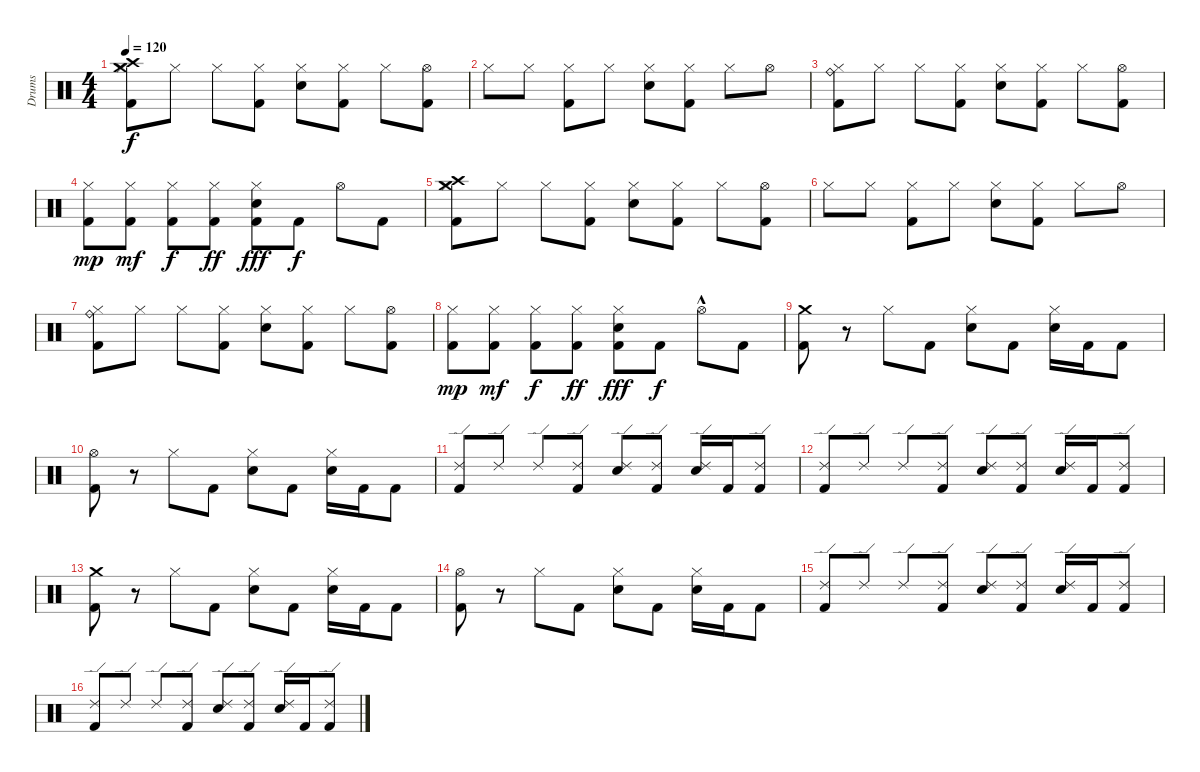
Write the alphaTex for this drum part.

\track ("Drums" "Drums") {instrument percussion}
\staff {score}
\articulation defaults
\ts (4 4)
\tempo 120
\clef neutral
\ks c
("Crash medium (hit)" "Crash high (hit)" "Hi-Hat (closed)" "Kick (hit) 2").8{dy f} "Hi-Hat (closed)".8 "Hi-Hat (closed)".8 ("Hi-Hat (closed)" "Kick (hit) 2").8 ("Hi-Hat (closed)" "Snare (hit) 2").8 ("Hi-Hat (closed)" "Kick (hit) 2").8 "Hi-Hat (closed)".8 ("Hi-Hat (open)" "Kick (hit) 2").8 |
"Hi-Hat (closed)".8 "Hi-Hat (closed)".8 ("Hi-Hat (closed)" "Kick (hit) 2").8 "Hi-Hat (closed)".8 ("Hi-Hat (closed)" "Snare (hit) 2").8 ("Hi-Hat (closed)" "Kick (hit) 2").8 "Hi-Hat (closed)".8 "Hi-Hat (open)".8 |
("Ride (bell)" "Hi-Hat (closed)" "Kick (hit) 2").8 "Hi-Hat (closed)".8 "Hi-Hat (closed)".8 ("Hi-Hat (closed)" "Kick (hit) 2").8 ("Hi-Hat (closed)" "Snare (hit) 2").8 ("Hi-Hat (closed)" "Kick (hit) 2").8 "Hi-Hat (closed)".8 ("Hi-Hat (open)" "Kick (hit) 2").8 |
("Hi-Hat (closed)" "Kick (hit) 2").8{dy mp} ("Hi-Hat (closed)" "Kick (hit) 2").8{dy mf} ("Hi-Hat (closed)" "Kick (hit) 2").8{dy f} ("Hi-Hat (closed)" "Kick (hit) 2").8{dy ff} ("Hi-Hat (closed)" "Kick (hit) 2" "Snare (hit) 2").8{dy fff} "Kick (hit) 2".8{dy f} "Hi-Hat (open)".8 "Kick (hit) 2".8 |
("Crash medium (hit)" "Crash high (hit)" "Hi-Hat (closed)" "Kick (hit) 2").8 "Hi-Hat (closed)".8 "Hi-Hat (closed)".8 ("Hi-Hat (closed)" "Kick (hit) 2").8 ("Hi-Hat (closed)" "Snare (hit) 2").8 ("Hi-Hat (closed)" "Kick (hit) 2").8 "Hi-Hat (closed)".8 ("Hi-Hat (open)" "Kick (hit) 2").8 |
"Hi-Hat (closed)".8 "Hi-Hat (closed)".8 ("Hi-Hat (closed)" "Kick (hit) 2").8 "Hi-Hat (closed)".8 ("Hi-Hat (closed)" "Snare (hit) 2").8 ("Hi-Hat (closed)" "Kick (hit) 2").8 "Hi-Hat (closed)".8 "Hi-Hat (open)".8 |
("Ride (bell)" "Hi-Hat (closed)" "Kick (hit) 2").8 "Hi-Hat (closed)".8 "Hi-Hat (closed)".8 ("Hi-Hat (closed)" "Kick (hit) 2").8 ("Hi-Hat (closed)" "Snare (hit) 2").8 ("Hi-Hat (closed)" "Kick (hit) 2").8 "Hi-Hat (closed)".8 ("Hi-Hat (open)" "Kick (hit) 2").8 |
("Hi-Hat (closed)" "Kick (hit) 2").8{dy mp} ("Hi-Hat (closed)" "Kick (hit) 2").8{dy mf} ("Hi-Hat (closed)" "Kick (hit) 2").8{dy f} ("Hi-Hat (closed)" "Kick (hit) 2").8{dy ff} ("Hi-Hat (closed)" "Kick (hit) 2" "Snare (hit) 2").8{dy fff} "Kick (hit) 2".8{dy f} "Hi-Hat (open)"{hac}.8 "Kick (hit) 2".8 |
("Crash medium (hit)" "Kick (hit) 2").8 r.8 "Hi-Hat (closed)".8 "Kick (hit) 2".8 ("Hi-Hat (closed)" "Snare (hit) 2").8 "Kick (hit) 2".8 ("Hi-Hat (closed)" "Snare (hit) 2").16 "Kick (hit) 2".16 "Kick (hit) 2".8 |
("Hi-Hat (open)" "Kick (hit) 2").8 r.8 "Hi-Hat (closed)".8 "Kick (hit) 2".8 ("Hi-Hat (closed)" "Snare (hit) 2").8 "Kick (hit) 2".8 ("Hi-Hat (closed)" "Snare (hit) 2").16 "Kick (hit) 2".16 "Kick (hit) 2".8 |
("Ride (edge) 2" "Kick (hit) 2").8 "Ride (edge) 2".8 "Ride (edge) 2".8 ("Ride (edge) 2" "Kick (hit) 2").8 ("Ride (edge) 2" "Snare (hit) 2").8 ("Ride (edge) 2" "Kick (hit) 2").8 ("Ride (edge) 2" "Snare (hit) 2").16 "Kick (hit) 2".16 ("Ride (edge) 2" "Kick (hit) 2").8 |
("Ride (edge) 2" "Kick (hit) 2").8 "Ride (edge) 2".8 "Ride (edge) 2".8 ("Ride (edge) 2" "Kick (hit) 2").8 ("Ride (edge) 2" "Snare (hit) 2").8 ("Ride (edge) 2" "Kick (hit) 2").8 ("Ride (edge) 2" "Snare (hit) 2").16 "Kick (hit) 2".16 ("Ride (edge) 2" "Kick (hit) 2").8 |
("Crash medium (hit)" "Kick (hit) 2").8 r.8 "Hi-Hat (closed)".8 "Kick (hit) 2".8 ("Hi-Hat (closed)" "Snare (hit) 2").8 "Kick (hit) 2".8 ("Hi-Hat (closed)" "Snare (hit) 2").16 "Kick (hit) 2".16 "Kick (hit) 2".8 |
("Hi-Hat (open)" "Kick (hit) 2").8 r.8 "Hi-Hat (closed)".8 "Kick (hit) 2".8 ("Hi-Hat (closed)" "Snare (hit) 2").8 "Kick (hit) 2".8 ("Hi-Hat (closed)" "Snare (hit) 2").16 "Kick (hit) 2".16 "Kick (hit) 2".8 |
("Ride (edge) 2" "Kick (hit) 2").8 "Ride (edge) 2".8 "Ride (edge) 2".8 ("Ride (edge) 2" "Kick (hit) 2").8 ("Ride (edge) 2" "Snare (hit) 2").8 ("Ride (edge) 2" "Kick (hit) 2").8 ("Ride (edge) 2" "Snare (hit) 2").16 "Kick (hit) 2".16 ("Ride (edge) 2" "Kick (hit) 2").8 |
("Ride (edge) 2" "Kick (hit) 2").8 "Ride (edge) 2".8 "Ride (edge) 2".8 ("Ride (edge) 2" "Kick (hit) 2").8 ("Ride (edge) 2" "Snare (hit) 2").8 ("Ride (edge) 2" "Kick (hit) 2").8 ("Ride (edge) 2" "Snare (hit) 2").16 "Kick (hit) 2".16 ("Ride (edge) 2" "Kick (hit) 2").8
